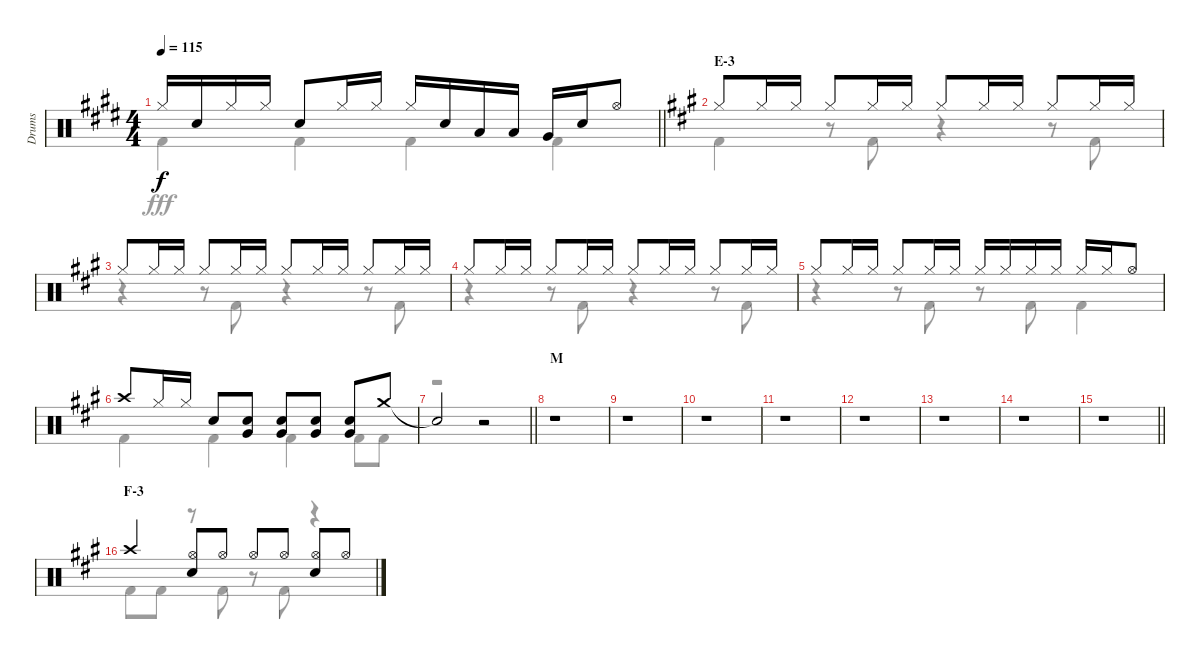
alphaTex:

\track ("Drums" "Drums") {instrument percussion}
\staff {score}
\articulation defaults
\voice
\ts (4 4)
\tempo 115
\clef neutral
\barLineRight lightlight
\ks e "Hi-Hat (closed)".16{dy f} "Snare (hit) 2".16 "Hi-Hat (closed)".16 "Hi-Hat (closed)".16 "Snare (hit) 2".8 "Hi-Hat (closed)".16 "Hi-Hat (closed)".16 "Hi-Hat (closed)".16 "Snare (hit) 2".16 "Low Tom (hit)".16 "Low Tom (hit)".16 "Very Low Tom (hit)".16 "Snare (hit) 2".16 "Hi-Hat (open)".8
|
\section ("" "E-3")
\ks a "Hi-Hat (closed)".8 "Hi-Hat (closed)".16 "Hi-Hat (closed)".16 "Hi-Hat (closed)".8 "Hi-Hat (closed)".16 "Hi-Hat (closed)".16 "Hi-Hat (closed)".8 "Hi-Hat (closed)".16 "Hi-Hat (closed)".16 "Hi-Hat (closed)".8 "Hi-Hat (closed)".16 "Hi-Hat (closed)".16
|
"Hi-Hat (closed)".8 "Hi-Hat (closed)".16 "Hi-Hat (closed)".16 "Hi-Hat (closed)".8 "Hi-Hat (closed)".16 "Hi-Hat (closed)".16 "Hi-Hat (closed)".8 "Hi-Hat (closed)".16 "Hi-Hat (closed)".16 "Hi-Hat (closed)".8 "Hi-Hat (closed)".16 "Hi-Hat (closed)".16 |
"Hi-Hat (closed)".8 "Hi-Hat (closed)".16 "Hi-Hat (closed)".16 "Hi-Hat (closed)".8 "Hi-Hat (closed)".16 "Hi-Hat (closed)".16 "Hi-Hat (closed)".8 "Hi-Hat (closed)".16 "Hi-Hat (closed)".16 "Hi-Hat (closed)".8 "Hi-Hat (closed)".16 "Hi-Hat (closed)".16 |
"Hi-Hat (closed)".8 "Hi-Hat (closed)".16 "Hi-Hat (closed)".16 "Hi-Hat (closed)".8 "Hi-Hat (closed)".16 "Hi-Hat (closed)".16 "Hi-Hat (closed)".16 "Hi-Hat (closed)".16 "Hi-Hat (closed)".16 "Hi-Hat (closed)".16 "Hi-Hat (closed)".16 "Hi-Hat (closed)".16 "Hi-Hat (open)".8 |
"Crash high (hit)".8 "Hi-Hat (closed)".16 "Hi-Hat (closed)".16 "Snare (hit) 2".8 ("Snare (hit) 2" "Very Low Tom (hit)").8 ("Snare (hit) 2" "Very Low Tom (hit)").8 ("Snare (hit) 2" "Very Low Tom (hit)").8 ("Snare (hit) 2" "Very Low Tom (hit)").8 "Crash medium (hit)".8 |
\barLineRight lightlight "Snare (hit)"{t}.2
r.2 |
\section ("" "M")
r.1 |
r.1 |
r.1 |
r.1 |
r.1 |
r.1 |
r.1 |
\barLineRight lightlight
r.1 |
\section ("" "F-3")
"Crash high (hit)".4 ("Hi-Hat (open)" "Snare (hit) 2").8 "Hi-Hat (open)".8 "Hi-Hat (open)".8 "Hi-Hat (open)".8 ("Hi-Hat (open)" "Snare (hit) 2").8 "Hi-Hat (open)".8
\voice
\clef neutral
\ottava regular
\simile none
\barLineRight lightlight
\ks e "Kick (hit) 2".4{dy fff} "Kick (hit) 2".4 "Kick (hit) 2".4 "Kick (hit) 2".4
|
\ks a "Kick (hit) 2".4
r.8 "Kick (hit) 2".8 r.4 r.8 "Kick (hit) 2".8 |
r.4 r.8 "Kick (hit) 2".8 r.4 r.8 "Kick (hit) 2".8 |
r.4 r.8 "Kick (hit) 2".8 r.4 r.8 "Kick (hit) 2".8 |
r.4 r.8 "Kick (hit) 2".8 r.8 "Kick (hit) 2".8 "Kick (hit) 2".4 |
"Kick (hit) 2".4 "Kick (hit) 2".4 "Kick (hit) 2".4 "Kick (hit) 2".8 "Kick (hit) 2".8 |
\barLineRight lightlight
r.1 |
r.1 |
r.1 |
r.1 |
r.1 |
r.1 |
r.1 |
r.1 |
\barLineRight lightlight
r.1 |
"Kick (hit) 2".8 "Kick (hit) 2".8 r.8 "Kick (hit) 2".8 r.8 "Kick (hit) 2".8 r.4
